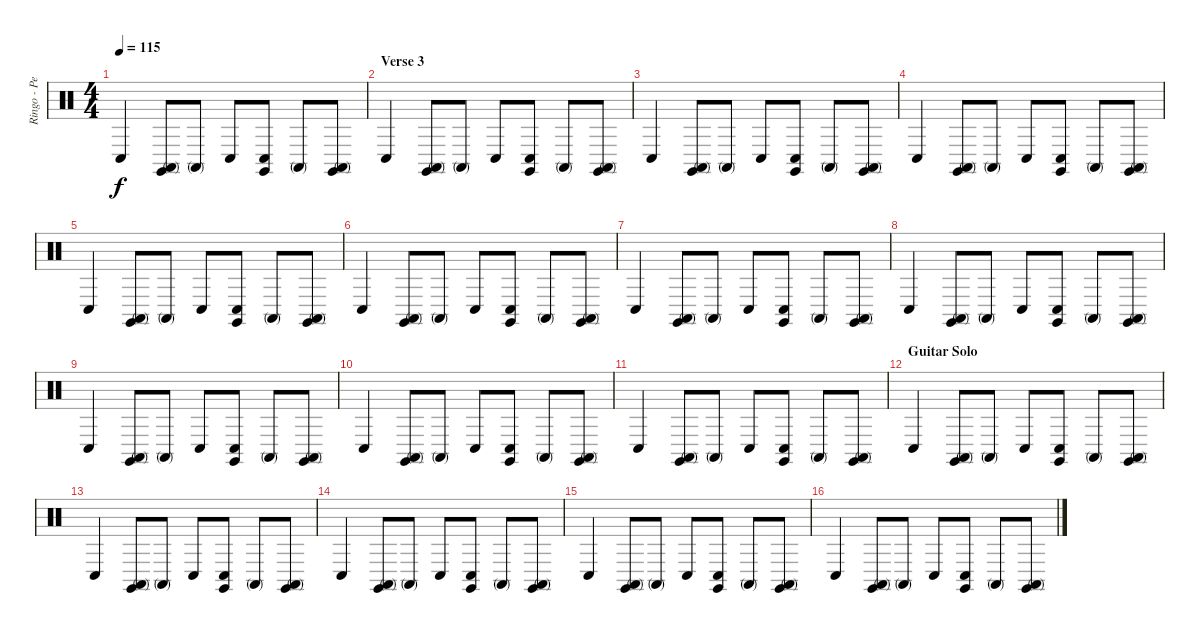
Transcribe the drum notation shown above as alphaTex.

\track ("Ringo - Percussion" "Ringo - Pe") {instrument percussion}
\staff {score}
\articulation defaults
\ts (4 4)
\tempo 115
\clef neutral
\ks c "Conga low (hit)".4{dy f}
("Conga high (mute)" "Claves (hit)").8 "Conga high (mute)".8 "Conga low (hit)".8 ("Conga low (hit)" "Claves (hit)").8 "Conga high (mute)".8 ("Conga high (mute)" "Claves (hit)").8 |
\section ("" "Verse 3")
"Conga low (hit)".4 ("Conga high (mute)" "Claves (hit)").8 "Conga high (mute)".8 "Conga low (hit)".8 ("Conga low (hit)" "Claves (hit)").8 "Conga high (mute)".8 ("Conga high (mute)" "Claves (hit)").8 |
"Conga low (hit)".4 ("Conga high (mute)" "Claves (hit)").8 "Conga high (mute)".8 "Conga low (hit)".8 ("Conga low (hit)" "Claves (hit)").8 "Conga high (mute)".8 ("Conga high (mute)" "Claves (hit)").8 |
"Conga low (hit)".4 ("Conga high (mute)" "Claves (hit)").8 "Conga high (mute)".8 "Conga low (hit)".8 ("Conga low (hit)" "Claves (hit)").8 "Conga high (mute)".8 ("Conga high (mute)" "Claves (hit)").8 |
"Conga low (hit)".4 ("Conga high (mute)" "Claves (hit)").8 "Conga high (mute)".8 "Conga low (hit)".8 ("Conga low (hit)" "Claves (hit)").8 "Conga high (mute)".8 ("Conga high (mute)" "Claves (hit)").8 |
"Conga low (hit)".4 ("Conga high (mute)" "Claves (hit)").8 "Conga high (mute)".8 "Conga low (hit)".8 ("Conga low (hit)" "Claves (hit)").8 "Conga high (mute)".8 ("Conga high (mute)" "Claves (hit)").8 |
"Conga low (hit)".4 ("Conga high (mute)" "Claves (hit)").8 "Conga high (mute)".8 "Conga low (hit)".8 ("Conga low (hit)" "Claves (hit)").8 "Conga high (mute)".8 ("Conga high (mute)" "Claves (hit)").8 |
"Conga low (hit)".4 ("Conga high (mute)" "Claves (hit)").8 "Conga high (mute)".8 "Conga low (hit)".8 ("Conga low (hit)" "Claves (hit)").8 "Conga high (mute)".8 ("Conga high (mute)" "Claves (hit)").8 |
"Conga low (hit)".4 ("Conga high (mute)" "Claves (hit)").8 "Conga high (mute)".8 "Conga low (hit)".8 ("Conga low (hit)" "Claves (hit)").8 "Conga high (mute)".8 ("Conga high (mute)" "Claves (hit)").8 |
"Conga low (hit)".4 ("Conga high (mute)" "Claves (hit)").8 "Conga high (mute)".8 "Conga low (hit)".8 ("Conga low (hit)" "Claves (hit)").8 "Conga high (mute)".8 ("Conga high (mute)" "Claves (hit)").8 |
"Conga low (hit)".4 ("Conga high (mute)" "Claves (hit)").8 "Conga high (mute)".8 "Conga low (hit)".8 ("Conga low (hit)" "Claves (hit)").8 "Conga high (mute)".8 ("Conga high (mute)" "Claves (hit)").8 |
\section ("" "Guitar Solo")
"Conga low (hit)".4 ("Conga high (mute)" "Claves (hit)").8 "Conga high (mute)".8 "Conga low (hit)".8 ("Conga low (hit)" "Claves (hit)").8 "Conga high (mute)".8 ("Conga high (mute)" "Claves (hit)").8 |
"Conga low (hit)".4 ("Conga high (mute)" "Claves (hit)").8 "Conga high (mute)".8 "Conga low (hit)".8 ("Conga low (hit)" "Claves (hit)").8 "Conga high (mute)".8 ("Conga high (mute)" "Claves (hit)").8 |
"Conga low (hit)".4 ("Conga high (mute)" "Claves (hit)").8 "Conga high (mute)".8 "Conga low (hit)".8 ("Conga low (hit)" "Claves (hit)").8 "Conga high (mute)".8 ("Conga high (mute)" "Claves (hit)").8 |
"Conga low (hit)".4 ("Conga high (mute)" "Claves (hit)").8 "Conga high (mute)".8 "Conga low (hit)".8 ("Conga low (hit)" "Claves (hit)").8 "Conga high (mute)".8 ("Conga high (mute)" "Claves (hit)").8 |
"Conga low (hit)".4 ("Conga high (mute)" "Claves (hit)").8 "Conga high (mute)".8 "Conga low (hit)".8 ("Conga low (hit)" "Claves (hit)").8 "Conga high (mute)".8 ("Conga high (mute)" "Claves (hit)").8
